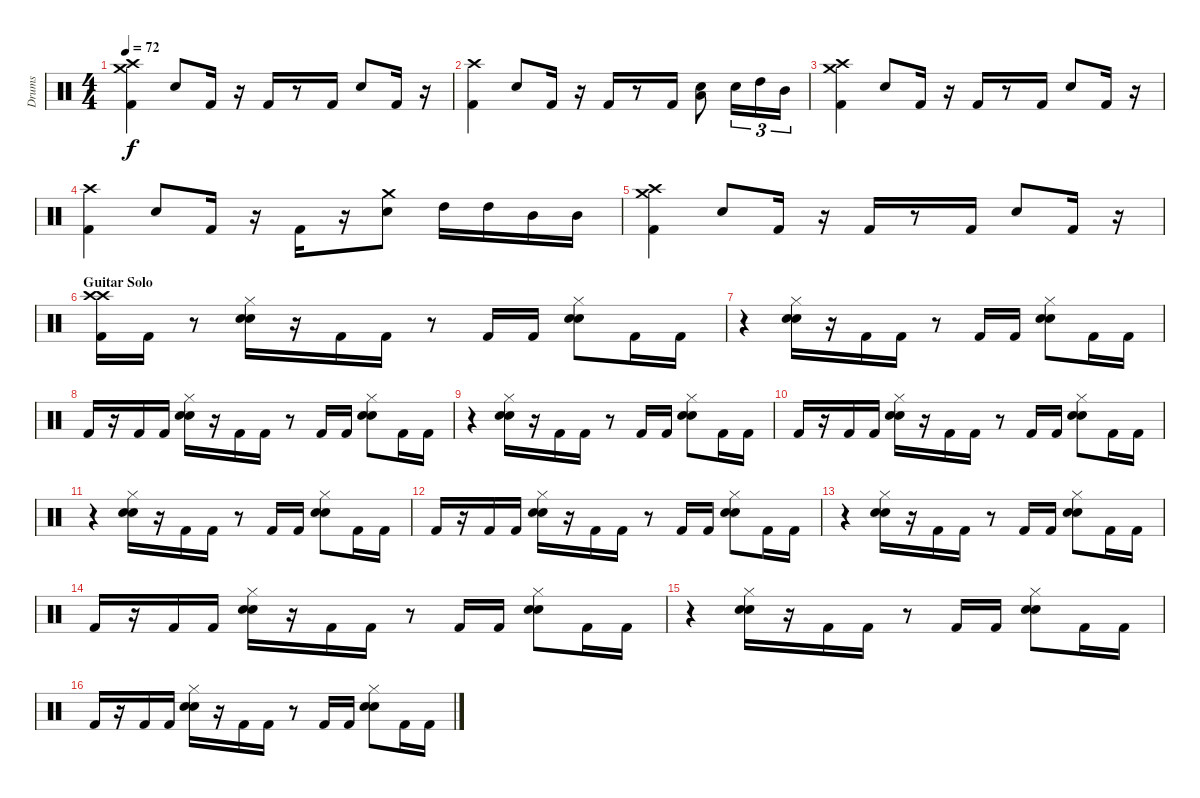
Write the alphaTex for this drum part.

\track ("Drums" "Drums") {instrument percussion}
\staff {score}
\articulation defaults
\ts (4 4)
\tempo 72
\clef neutral
\ks c
("Crash medium (hit)" "Crash high (hit)" "Kick (hit) 2").4{dy f} "Electric Snare (hit)".8 "Kick (hit) 2".16 r.16 "Kick (hit) 2".16 r.8 "Kick (hit) 2".16 "Electric Snare (hit)".8 "Kick (hit) 2".16 r.16 |
("Crash high (hit)" "Kick (hit) 2").4 "Electric Snare (hit)".8 "Kick (hit) 2".16 r.16 "Kick (hit) 2".16 r.8 "Kick (hit) 2".16 ("Low Tom (hit)" "Electric Snare (hit)").8 "Electric Snare (hit)".16{tu (3 2)} "High Tom (hit)".16{tu (3 2)} "Mid Tom (hit)".16{tu (3 2)} |
("Crash medium (hit)" "Crash high (hit)" "Kick (hit) 2").4 "Electric Snare (hit)".8 "Kick (hit) 2".16 r.16 "Kick (hit) 2".16 r.8 "Kick (hit) 2".16 "Electric Snare (hit)".8 "Kick (hit) 2".16 r.16 |
("Crash high (hit)" "Kick (hit) 2").4 "Electric Snare (hit)".8 "Kick (hit) 2".16 r.16 "Kick (hit) 2".16 r.16 ("Crash medium (hit)" "Electric Snare (hit)").8 "High Tom (hit)".16 "High Tom (hit)".16 "Mid Tom (hit)".16 "Mid Tom (hit)".16 |
("Crash medium (hit)" "Crash high (hit)" "Kick (hit) 2").4 "Electric Snare (hit)".8 "Kick (hit) 2".16 r.16 "Kick (hit) 2".16 r.8 "Kick (hit) 2".16 "Electric Snare (hit)".8 "Kick (hit) 2".16 r.16 |
\section ("" "Guitar Solo")
("Crash high (hit)" "Crash high (hit)" "Kick (hit) 2").16 "Kick (hit) 2".16 r.8 ("Hi-Hat (closed)" "Electric Snare (hit)" "Electric Snare (hit)").16 r.16 "Kick (hit) 2".16 "Kick (hit) 2".16 r.8 "Kick (hit) 2".16 "Kick (hit) 2".16 ("Hi-Hat (closed)" "Electric Snare (hit)" "Electric Snare (hit)").8 "Kick (hit) 2".16 "Kick (hit) 2".16 |
r.4 ("Hi-Hat (closed)" "Electric Snare (hit)" "Electric Snare (hit)").16 r.16 "Kick (hit) 2".16 "Kick (hit) 2".16 r.8 "Kick (hit) 2".16 "Kick (hit) 2".16 ("Hi-Hat (closed)" "Electric Snare (hit)" "Electric Snare (hit)").8 "Kick (hit) 2".16 "Kick (hit) 2".16 |
"Kick (hit) 2".16 r.16 "Kick (hit) 2".16 "Kick (hit) 2".16 ("Hi-Hat (closed)" "Electric Snare (hit)" "Electric Snare (hit)").16 r.16 "Kick (hit) 2".16 "Kick (hit) 2".16 r.8 "Kick (hit) 2".16 "Kick (hit) 2".16 ("Hi-Hat (closed)" "Electric Snare (hit)" "Electric Snare (hit)").8 "Kick (hit) 2".16 "Kick (hit) 2".16 |
r.4 ("Hi-Hat (closed)" "Electric Snare (hit)" "Electric Snare (hit)").16 r.16 "Kick (hit) 2".16 "Kick (hit) 2".16 r.8 "Kick (hit) 2".16 "Kick (hit) 2".16 ("Hi-Hat (closed)" "Electric Snare (hit)" "Electric Snare (hit)").8 "Kick (hit) 2".16 "Kick (hit) 2".16 |
"Kick (hit) 2".16 r.16 "Kick (hit) 2".16 "Kick (hit) 2".16 ("Hi-Hat (closed)" "Electric Snare (hit)" "Electric Snare (hit)").16 r.16 "Kick (hit) 2".16 "Kick (hit) 2".16 r.8 "Kick (hit) 2".16 "Kick (hit) 2".16 ("Hi-Hat (closed)" "Electric Snare (hit)" "Electric Snare (hit)").8 "Kick (hit) 2".16 "Kick (hit) 2".16 |
r.4 ("Hi-Hat (closed)" "Electric Snare (hit)" "Electric Snare (hit)").16 r.16 "Kick (hit) 2".16 "Kick (hit) 2".16 r.8 "Kick (hit) 2".16 "Kick (hit) 2".16 ("Hi-Hat (closed)" "Electric Snare (hit)" "Electric Snare (hit)").8 "Kick (hit) 2".16 "Kick (hit) 2".16 |
"Kick (hit) 2".16 r.16 "Kick (hit) 2".16 "Kick (hit) 2".16 ("Hi-Hat (closed)" "Electric Snare (hit)" "Electric Snare (hit)").16 r.16 "Kick (hit) 2".16 "Kick (hit) 2".16 r.8 "Kick (hit) 2".16 "Kick (hit) 2".16 ("Hi-Hat (closed)" "Electric Snare (hit)" "Electric Snare (hit)").8 "Kick (hit) 2".16 "Kick (hit) 2".16 |
r.4 ("Hi-Hat (closed)" "Electric Snare (hit)" "Electric Snare (hit)").16 r.16 "Kick (hit) 2".16 "Kick (hit) 2".16 r.8 "Kick (hit) 2".16 "Kick (hit) 2".16 ("Hi-Hat (closed)" "Electric Snare (hit)" "Electric Snare (hit)").8 "Kick (hit) 2".16 "Kick (hit) 2".16 |
"Kick (hit) 2".16 r.16 "Kick (hit) 2".16 "Kick (hit) 2".16 ("Hi-Hat (closed)" "Electric Snare (hit)" "Electric Snare (hit)").16 r.16 "Kick (hit) 2".16 "Kick (hit) 2".16 r.8 "Kick (hit) 2".16 "Kick (hit) 2".16 ("Hi-Hat (closed)" "Electric Snare (hit)" "Electric Snare (hit)").8 "Kick (hit) 2".16 "Kick (hit) 2".16 |
r.4 ("Hi-Hat (closed)" "Electric Snare (hit)" "Electric Snare (hit)").16 r.16 "Kick (hit) 2".16 "Kick (hit) 2".16 r.8 "Kick (hit) 2".16 "Kick (hit) 2".16 ("Hi-Hat (closed)" "Electric Snare (hit)" "Electric Snare (hit)").8 "Kick (hit) 2".16 "Kick (hit) 2".16 |
"Kick (hit) 2".16 r.16 "Kick (hit) 2".16 "Kick (hit) 2".16 ("Hi-Hat (closed)" "Electric Snare (hit)" "Electric Snare (hit)").16 r.16 "Kick (hit) 2".16 "Kick (hit) 2".16 r.8 "Kick (hit) 2".16 "Kick (hit) 2".16 ("Hi-Hat (closed)" "Electric Snare (hit)" "Electric Snare (hit)").8 "Kick (hit) 2".16 "Kick (hit) 2".16
